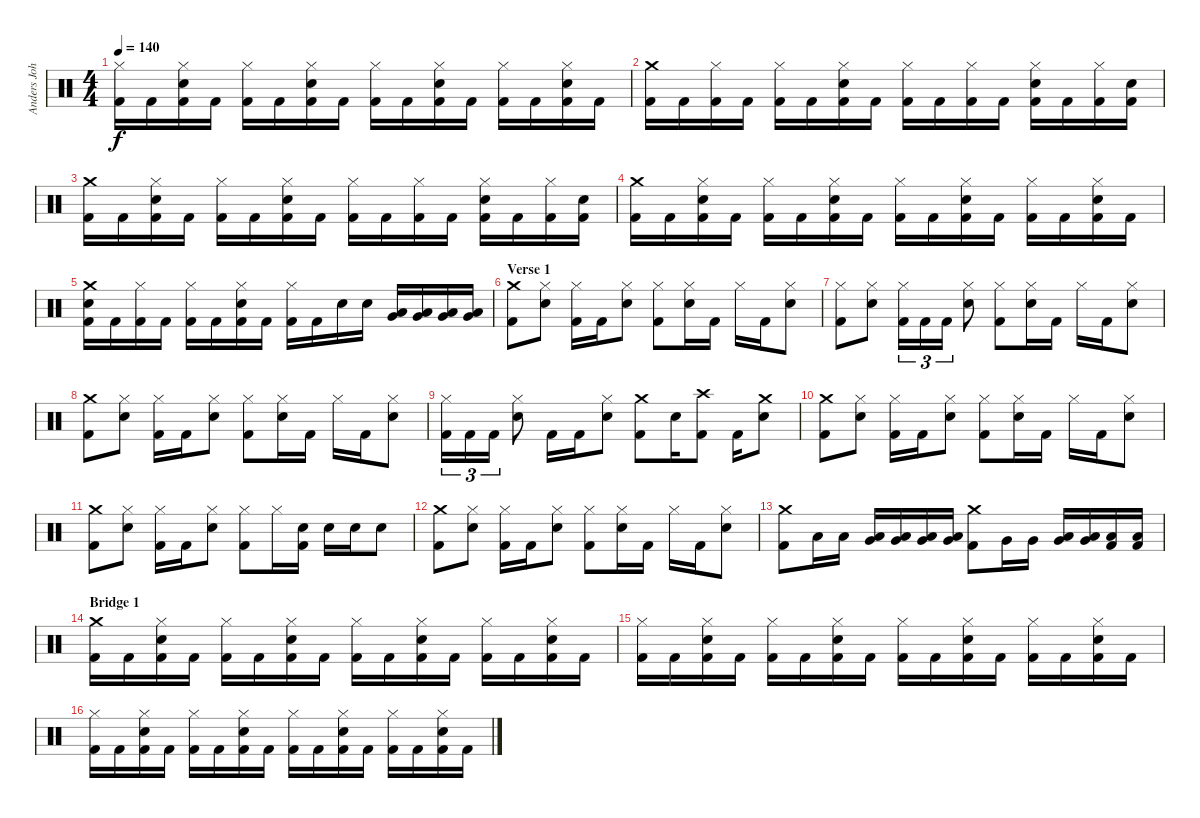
\track ("Anders Johansson :: Drums" "Anders Joh") {instrument percussion}
\staff {score}
\articulation defaults
\ts (4 4)
\tempo 140
\clef neutral
\ks c
("Hi-Hat (closed)" "Kick (hit) 2").16{dy f} "Kick (hit) 2".16 ("Hi-Hat (closed)" "Snare (hit) 2" "Kick (hit) 2").16 "Kick (hit) 2".16 ("Hi-Hat (closed)" "Kick (hit) 2").16 "Kick (hit) 2".16 ("Hi-Hat (closed)" "Snare (hit) 2" "Kick (hit) 2").16 "Kick (hit) 2".16 ("Hi-Hat (closed)" "Kick (hit) 2").16 "Kick (hit) 2".16 ("Hi-Hat (closed)" "Snare (hit) 2" "Kick (hit) 2").16 "Kick (hit) 2".16 ("Hi-Hat (closed)" "Kick (hit) 2").16 "Kick (hit) 2".16 ("Hi-Hat (closed)" "Snare (hit) 2" "Kick (hit) 2").16 "Kick (hit) 2".16 |
("Crash medium (hit)" "Kick (hit) 2").16 "Kick (hit) 2".16 ("Hi-Hat (closed)" "Kick (hit) 2").16 "Kick (hit) 2".16 ("Hi-Hat (closed)" "Kick (hit) 2").16 "Kick (hit) 2".16 ("Hi-Hat (closed)" "Snare (hit) 2" "Kick (hit) 2").16 "Kick (hit) 2".16 ("Hi-Hat (closed)" "Kick (hit) 2").16 "Kick (hit) 2".16 ("Hi-Hat (closed)" "Kick (hit) 2").16 "Kick (hit) 2".16 ("Hi-Hat (closed)" "Snare (hit) 2" "Kick (hit) 2").16 "Kick (hit) 2".16 ("Hi-Hat (closed)" "Kick (hit) 2").16 ("Snare (hit) 2" "Kick (hit) 2").16 |
("Crash medium (hit)" "Kick (hit) 2").16 "Kick (hit) 2".16 ("Hi-Hat (closed)" "Snare (hit) 2" "Kick (hit) 2").16 "Kick (hit) 2".16 ("Hi-Hat (closed)" "Kick (hit) 2").16 "Kick (hit) 2".16 ("Hi-Hat (closed)" "Snare (hit) 2" "Kick (hit) 2").16 "Kick (hit) 2".16 ("Hi-Hat (closed)" "Kick (hit) 2").16 "Kick (hit) 2".16 ("Hi-Hat (closed)" "Kick (hit) 2").16 "Kick (hit) 2".16 ("Hi-Hat (closed)" "Snare (hit) 2" "Kick (hit) 2").16 "Kick (hit) 2".16 ("Hi-Hat (closed)" "Kick (hit) 2").16 ("Snare (hit) 2" "Kick (hit) 2").16 |
("Crash medium (hit)" "Kick (hit) 2").16 "Kick (hit) 2".16 ("Hi-Hat (closed)" "Snare (hit) 2" "Kick (hit) 2").16 "Kick (hit) 2".16 ("Hi-Hat (closed)" "Kick (hit) 2").16 "Kick (hit) 2".16 ("Hi-Hat (closed)" "Snare (hit) 2" "Kick (hit) 2").16 "Kick (hit) 2".16 ("Hi-Hat (closed)" "Kick (hit) 2").16 "Kick (hit) 2".16 ("Hi-Hat (closed)" "Snare (hit) 2" "Kick (hit) 2").16 "Kick (hit) 2".16 ("Hi-Hat (closed)" "Kick (hit) 2").16 "Kick (hit) 2".16 ("Hi-Hat (closed)" "Snare (hit) 2" "Kick (hit) 2").16 "Kick (hit) 2".16 |
("Crash medium (hit)" "Snare (hit) 2" "Kick (hit) 2").16 "Kick (hit) 2".16 ("Hi-Hat (closed)" "Kick (hit) 2").16 "Kick (hit) 2".16 ("Hi-Hat (closed)" "Kick (hit) 2").16 "Kick (hit) 2".16 ("Hi-Hat (closed)" "Snare (hit) 2" "Kick (hit) 2").16 "Kick (hit) 2".16 ("Hi-Hat (closed)" "Kick (hit) 2").16 "Kick (hit) 2".16 "Snare (hit) 2".16 "Snare (hit) 2".16 ("Low Tom (hit)" "Very Low Tom (hit)").16 ("Low Tom (hit)" "Very Low Tom (hit)").16 ("Low Tom (hit)" "Very Low Tom (hit)").16 ("Low Tom (hit)" "Very Low Tom (hit)").16 |
\section ("" "Verse 1")
("Crash medium (hit)" "Kick (hit) 2").8 ("Hi-Hat (closed)" "Snare (hit) 2").8 ("Hi-Hat (closed)" "Kick (hit) 2").16 "Kick (hit) 2".16 ("Hi-Hat (closed)" "Snare (hit) 2").8 ("Hi-Hat (closed)" "Kick (hit) 2").8 ("Hi-Hat (closed)" "Snare (hit) 2").16 "Kick (hit) 2".16 "Hi-Hat (closed)".16 "Kick (hit) 2".16 ("Hi-Hat (closed)" "Snare (hit) 2").8 |
("Hi-Hat (closed)" "Kick (hit) 2").8 ("Hi-Hat (closed)" "Snare (hit) 2").8 ("Hi-Hat (closed)" "Kick (hit) 2").16{tu (3 2)} "Kick (hit) 2".16{tu (3 2)} "Kick (hit) 2".16{tu (3 2)} ("Hi-Hat (closed)" "Snare (hit) 2").8 ("Hi-Hat (closed)" "Kick (hit) 2").8 ("Hi-Hat (closed)" "Snare (hit) 2").16 "Kick (hit) 2".16 "Hi-Hat (closed)".16 "Kick (hit) 2".16 ("Hi-Hat (closed)" "Snare (hit) 2").8 |
("Crash medium (hit)" "Kick (hit) 2").8 ("Hi-Hat (closed)" "Snare (hit) 2").8 ("Hi-Hat (closed)" "Kick (hit) 2").16 "Kick (hit) 2".16 ("Hi-Hat (closed)" "Snare (hit) 2").8 ("Hi-Hat (closed)" "Kick (hit) 2").8 ("Hi-Hat (closed)" "Snare (hit) 2").16 "Kick (hit) 2".16 "Hi-Hat (closed)".16 "Kick (hit) 2".16 ("Hi-Hat (closed)" "Snare (hit) 2").8 |
("Hi-Hat (closed)" "Kick (hit) 2").16{tu (3 2)} "Kick (hit) 2".16{tu (3 2)} "Kick (hit) 2".16{tu (3 2)} ("Hi-Hat (closed)" "Snare (hit) 2").8 "Kick (hit) 2".16 "Kick (hit) 2".16 ("Hi-Hat (closed)" "Snare (hit) 2").8 ("Crash medium (hit)" "Kick (hit) 2").8 "Snare (hit) 2".16 ("Crash high (hit)" "Kick (hit) 2").8 "Kick (hit) 2".16 ("Crash medium (hit)" "Snare (hit) 2").8 |
("Crash medium (hit)" "Kick (hit) 2").8 ("Hi-Hat (closed)" "Snare (hit) 2").8 ("Hi-Hat (closed)" "Kick (hit) 2").16 "Kick (hit) 2".16 ("Hi-Hat (closed)" "Snare (hit) 2").8 ("Hi-Hat (closed)" "Kick (hit) 2").8 ("Hi-Hat (closed)" "Snare (hit) 2").16 "Kick (hit) 2".16 "Hi-Hat (closed)".16 "Kick (hit) 2".16 ("Hi-Hat (closed)" "Snare (hit) 2").8 |
("Crash medium (hit)" "Kick (hit) 2").8 ("Hi-Hat (closed)" "Snare (hit) 2").8 ("Hi-Hat (closed)" "Kick (hit) 2").16 "Kick (hit) 2".16 ("Hi-Hat (closed)" "Snare (hit) 2").8 ("Hi-Hat (closed)" "Kick (hit) 2").8 "Hi-Hat (closed)".16 ("Snare (hit) 2" "Kick (hit) 2").16 "Snare (hit) 2".16 "Snare (hit) 2".16 "Snare (hit) 2".8 |
("Crash medium (hit)" "Kick (hit) 2").8 ("Hi-Hat (closed)" "Snare (hit) 2").8 ("Hi-Hat (closed)" "Kick (hit) 2").16 "Kick (hit) 2".16 ("Hi-Hat (closed)" "Snare (hit) 2").8 ("Hi-Hat (closed)" "Kick (hit) 2").8 ("Hi-Hat (closed)" "Snare (hit) 2").16 "Kick (hit) 2".16 "Hi-Hat (closed)".16 "Kick (hit) 2".16 ("Hi-Hat (closed)" "Snare (hit) 2").8 |
("Crash medium (hit)" "Kick (hit) 2").8 "Low Tom (hit)".16 "Low Tom (hit)".16 ("Low Tom (hit)" "Very Low Tom (hit)").16 ("Low Tom (hit)" "Very Low Tom (hit)").16 ("Very Low Tom (hit)" "Low Floor Tom (hit)").16 ("Very Low Tom (hit)" "Low Floor Tom (hit)").16 ("Crash medium (hit)" "Kick (hit) 2").8 "Very Low Tom (hit)".16 "Very Low Tom (hit)".16 ("Very Low Tom (hit)" "Low Floor Tom (hit)").16 ("Very Low Tom (hit)" "Low Floor Tom (hit)").16 ("Low Floor Tom (hit)" "Kick (hit) 2").16 ("Low Floor Tom (hit)" "Kick (hit) 2").16 |
\section ("" "Bridge 1")
("Crash medium (hit)" "Kick (hit) 2").16 "Kick (hit) 2".16 ("Hi-Hat (closed)" "Snare (hit) 2" "Kick (hit) 2").16 "Kick (hit) 2".16 ("Hi-Hat (closed)" "Kick (hit) 2").16 "Kick (hit) 2".16 ("Hi-Hat (closed)" "Snare (hit) 2" "Kick (hit) 2").16 "Kick (hit) 2".16 ("Hi-Hat (closed)" "Kick (hit) 2").16 "Kick (hit) 2".16 ("Hi-Hat (closed)" "Snare (hit) 2" "Kick (hit) 2").16 "Kick (hit) 2".16 ("Hi-Hat (closed)" "Kick (hit) 2").16 "Kick (hit) 2".16 ("Hi-Hat (closed)" "Snare (hit) 2" "Kick (hit) 2").16 "Kick (hit) 2".16 |
("Hi-Hat (closed)" "Kick (hit) 2").16 "Kick (hit) 2".16 ("Hi-Hat (closed)" "Snare (hit) 2" "Kick (hit) 2").16 "Kick (hit) 2".16 ("Hi-Hat (closed)" "Kick (hit) 2").16 "Kick (hit) 2".16 ("Hi-Hat (closed)" "Snare (hit) 2" "Kick (hit) 2").16 "Kick (hit) 2".16 ("Hi-Hat (closed)" "Kick (hit) 2").16 "Kick (hit) 2".16 ("Hi-Hat (closed)" "Snare (hit) 2" "Kick (hit) 2").16 "Kick (hit) 2".16 ("Hi-Hat (closed)" "Kick (hit) 2").16 "Kick (hit) 2".16 ("Hi-Hat (closed)" "Snare (hit) 2" "Kick (hit) 2").16 "Kick (hit) 2".16 |
("Hi-Hat (closed)" "Kick (hit) 2").16 "Kick (hit) 2".16 ("Hi-Hat (closed)" "Snare (hit) 2" "Kick (hit) 2").16 "Kick (hit) 2".16 ("Hi-Hat (closed)" "Kick (hit) 2").16 "Kick (hit) 2".16 ("Hi-Hat (closed)" "Snare (hit) 2" "Kick (hit) 2").16 "Kick (hit) 2".16 ("Hi-Hat (closed)" "Kick (hit) 2").16 "Kick (hit) 2".16 ("Hi-Hat (closed)" "Snare (hit) 2" "Kick (hit) 2").16 "Kick (hit) 2".16 ("Hi-Hat (closed)" "Kick (hit) 2").16 "Kick (hit) 2".16 ("Hi-Hat (closed)" "Snare (hit) 2" "Kick (hit) 2").16 "Kick (hit) 2".16
